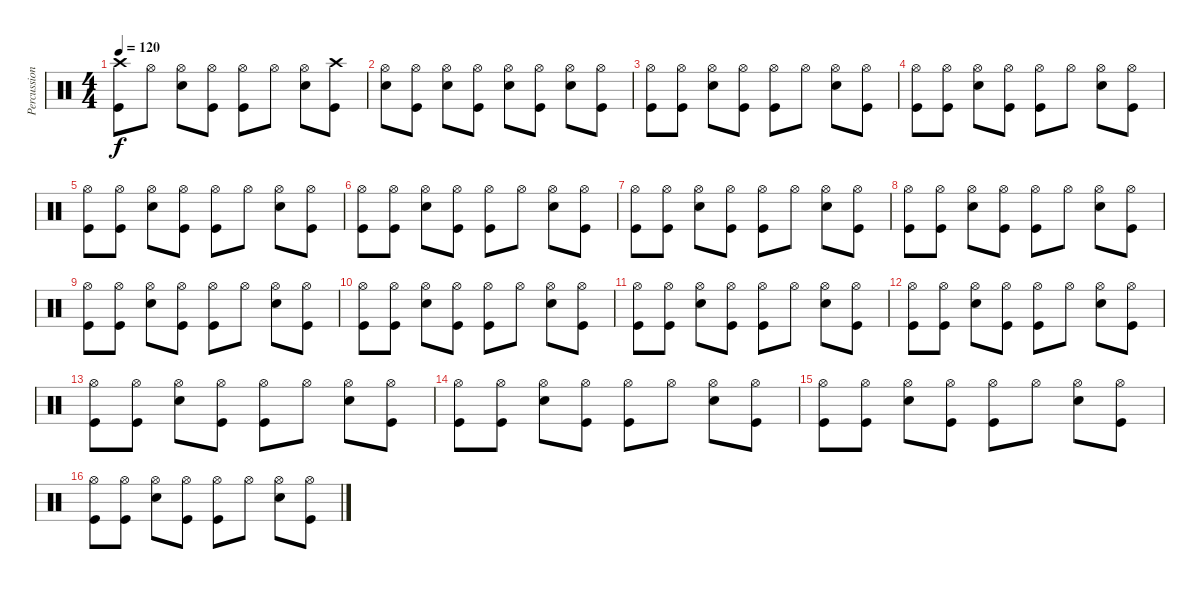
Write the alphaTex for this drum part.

\track ("Percussion" "Percussion") {instrument percussion}
\staff {score}
\articulation defaults
\ts (4 4)
\tempo 120
\clef neutral
\ks c
("Crash high (hit)" "Kick (hit)").8{dy f} "Hi-Hat (open)".8 ("Hi-Hat (open)" "Snare (hit) 2").8 ("Hi-Hat (open)" "Kick (hit)").8 ("Hi-Hat (open)" "Kick (hit)").8 "Hi-Hat (open)".8 ("Hi-Hat (open)" "Snare (hit) 2").8 ("Crash high (hit)" "Kick (hit)").8 |
("Hi-Hat (open)" "Snare (hit) 2").8 ("Hi-Hat (open)" "Kick (hit)").8 ("Hi-Hat (open)" "Snare (hit) 2").8 ("Hi-Hat (open)" "Kick (hit)").8 ("Hi-Hat (open)" "Snare (hit) 2").8 ("Hi-Hat (open)" "Kick (hit)").8 ("Hi-Hat (open)" "Snare (hit) 2").8 ("Hi-Hat (open)" "Kick (hit)").8 |
("Hi-Hat (open)" "Kick (hit)").8 ("Hi-Hat (open)" "Kick (hit)").8 ("Hi-Hat (open)" "Snare (hit) 2").8 ("Hi-Hat (open)" "Kick (hit)").8 ("Hi-Hat (open)" "Kick (hit)").8 "Hi-Hat (open)".8 ("Snare (hit) 2" "Hi-Hat (open)").8 ("Hi-Hat (open)" "Kick (hit)").8 |
("Hi-Hat (open)" "Kick (hit)").8 ("Hi-Hat (open)" "Kick (hit)").8 ("Hi-Hat (open)" "Snare (hit) 2").8 ("Hi-Hat (open)" "Kick (hit)").8 ("Hi-Hat (open)" "Kick (hit)").8 "Hi-Hat (open)".8 ("Snare (hit) 2" "Hi-Hat (open)").8 ("Hi-Hat (open)" "Kick (hit)").8 |
("Hi-Hat (open)" "Kick (hit)").8 ("Hi-Hat (open)" "Kick (hit)").8 ("Hi-Hat (open)" "Snare (hit) 2").8 ("Hi-Hat (open)" "Kick (hit)").8 ("Hi-Hat (open)" "Kick (hit)").8 "Hi-Hat (open)".8 ("Snare (hit) 2" "Hi-Hat (open)").8 ("Hi-Hat (open)" "Kick (hit)").8 |
("Hi-Hat (open)" "Kick (hit)").8 ("Hi-Hat (open)" "Kick (hit)").8 ("Hi-Hat (open)" "Snare (hit) 2").8 ("Hi-Hat (open)" "Kick (hit)").8 ("Hi-Hat (open)" "Kick (hit)").8 "Hi-Hat (open)".8 ("Snare (hit) 2" "Hi-Hat (open)").8 ("Hi-Hat (open)" "Kick (hit)").8 |
("Hi-Hat (open)" "Kick (hit)").8 ("Hi-Hat (open)" "Kick (hit)").8 ("Hi-Hat (open)" "Snare (hit) 2").8 ("Hi-Hat (open)" "Kick (hit)").8 ("Hi-Hat (open)" "Kick (hit)").8 "Hi-Hat (open)".8 ("Snare (hit) 2" "Hi-Hat (open)").8 ("Hi-Hat (open)" "Kick (hit)").8 |
("Hi-Hat (open)" "Kick (hit)").8 ("Hi-Hat (open)" "Kick (hit)").8 ("Hi-Hat (open)" "Snare (hit) 2").8 ("Hi-Hat (open)" "Kick (hit)").8 ("Hi-Hat (open)" "Kick (hit)").8 "Hi-Hat (open)".8 ("Snare (hit) 2" "Hi-Hat (open)").8 ("Hi-Hat (open)" "Kick (hit)").8 |
("Hi-Hat (open)" "Kick (hit)").8 ("Hi-Hat (open)" "Kick (hit)").8 ("Hi-Hat (open)" "Snare (hit) 2").8 ("Hi-Hat (open)" "Kick (hit)").8 ("Hi-Hat (open)" "Kick (hit)").8 "Hi-Hat (open)".8 ("Snare (hit) 2" "Hi-Hat (open)").8 ("Hi-Hat (open)" "Kick (hit)").8 |
("Hi-Hat (open)" "Kick (hit)").8 ("Hi-Hat (open)" "Kick (hit)").8 ("Hi-Hat (open)" "Snare (hit) 2").8 ("Hi-Hat (open)" "Kick (hit)").8 ("Hi-Hat (open)" "Kick (hit)").8 "Hi-Hat (open)".8 ("Snare (hit) 2" "Hi-Hat (open)").8 ("Hi-Hat (open)" "Kick (hit)").8 |
("Hi-Hat (open)" "Kick (hit)").8 ("Hi-Hat (open)" "Kick (hit)").8 ("Hi-Hat (open)" "Snare (hit) 2").8 ("Hi-Hat (open)" "Kick (hit)").8 ("Hi-Hat (open)" "Kick (hit)").8 "Hi-Hat (open)".8 ("Snare (hit) 2" "Hi-Hat (open)").8 ("Hi-Hat (open)" "Kick (hit)").8 |
("Hi-Hat (open)" "Kick (hit)").8 ("Hi-Hat (open)" "Kick (hit)").8 ("Hi-Hat (open)" "Snare (hit) 2").8 ("Hi-Hat (open)" "Kick (hit)").8 ("Hi-Hat (open)" "Kick (hit)").8 "Hi-Hat (open)".8 ("Snare (hit) 2" "Hi-Hat (open)").8 ("Hi-Hat (open)" "Kick (hit)").8 |
("Hi-Hat (open)" "Kick (hit)").8 ("Hi-Hat (open)" "Kick (hit)").8 ("Hi-Hat (open)" "Snare (hit) 2").8 ("Hi-Hat (open)" "Kick (hit)").8 ("Hi-Hat (open)" "Kick (hit)").8 "Hi-Hat (open)".8 ("Snare (hit) 2" "Hi-Hat (open)").8 ("Hi-Hat (open)" "Kick (hit)").8 |
("Hi-Hat (open)" "Kick (hit)").8 ("Hi-Hat (open)" "Kick (hit)").8 ("Hi-Hat (open)" "Snare (hit) 2").8 ("Hi-Hat (open)" "Kick (hit)").8 ("Hi-Hat (open)" "Kick (hit)").8 "Hi-Hat (open)".8 ("Snare (hit) 2" "Hi-Hat (open)").8 ("Hi-Hat (open)" "Kick (hit)").8 |
("Hi-Hat (open)" "Kick (hit)").8 ("Hi-Hat (open)" "Kick (hit)").8 ("Hi-Hat (open)" "Snare (hit) 2").8 ("Hi-Hat (open)" "Kick (hit)").8 ("Hi-Hat (open)" "Kick (hit)").8 "Hi-Hat (open)".8 ("Snare (hit) 2" "Hi-Hat (open)").8 ("Hi-Hat (open)" "Kick (hit)").8 |
("Hi-Hat (open)" "Kick (hit)").8 ("Hi-Hat (open)" "Kick (hit)").8 ("Hi-Hat (open)" "Snare (hit) 2").8 ("Hi-Hat (open)" "Kick (hit)").8 ("Hi-Hat (open)" "Kick (hit)").8 "Hi-Hat (open)".8 ("Snare (hit) 2" "Hi-Hat (open)").8 ("Hi-Hat (open)" "Kick (hit)").8
